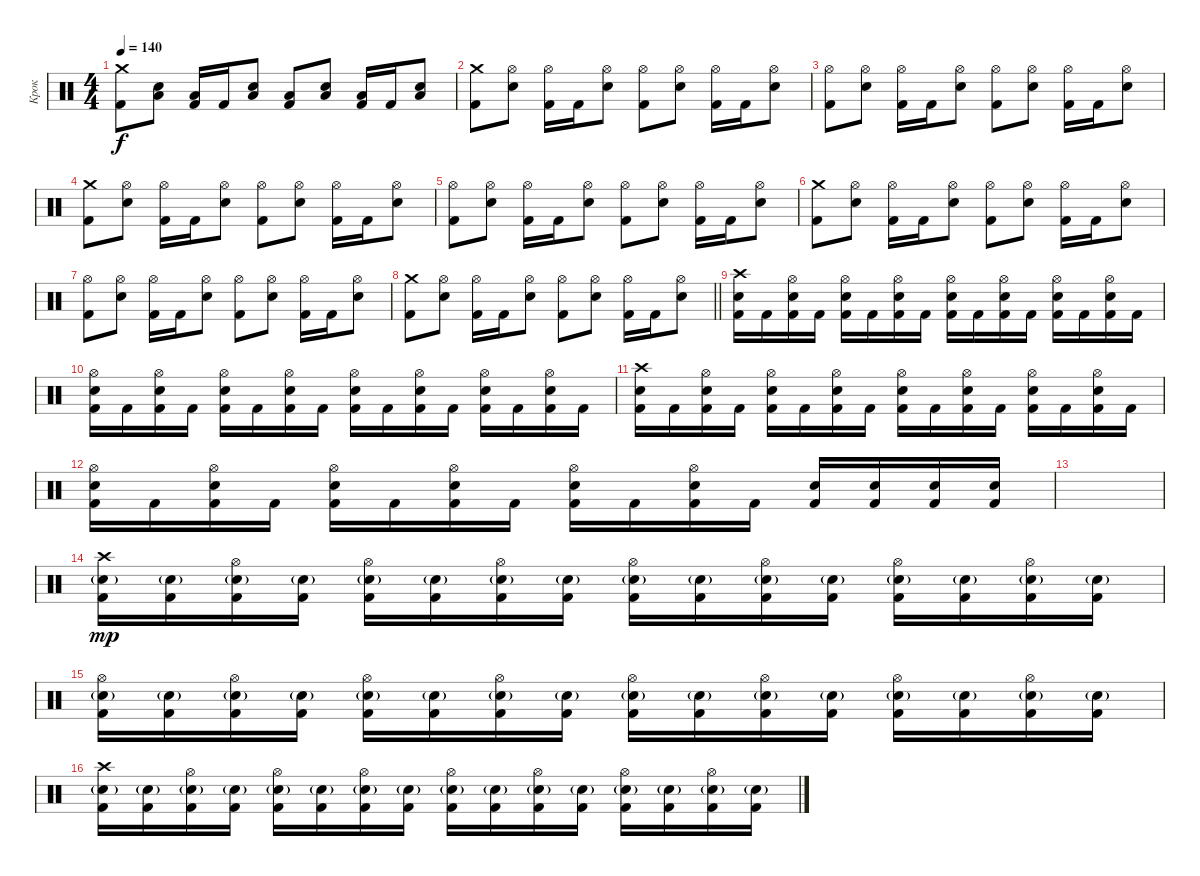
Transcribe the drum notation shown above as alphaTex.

\track ("Крок" "Крок") {instrument percussion}
\staff {score}
\articulation defaults
\ts (4 4)
\tempo 140
\clef neutral
\ks c
("Crash medium (hit)" "Kick (hit) 2").8{dy f} ("Low Floor Tom (hit)" "Electric Snare (hit)").8 ("Low Floor Tom (hit)" "Kick (hit) 2").16 "Kick (hit) 2".16 ("Low Floor Tom (hit)" "Electric Snare (hit)").8 ("Low Floor Tom (hit)" "Kick (hit) 2").8 ("Low Floor Tom (hit)" "Electric Snare (hit)").8 ("Low Floor Tom (hit)" "Kick (hit) 2").16 "Kick (hit) 2".16 ("Low Floor Tom (hit)" "Electric Snare (hit)").8 |
("Crash medium (hit)" "Kick (hit) 2").8 ("Hi-Hat (open)" "Electric Snare (hit)").8 ("Hi-Hat (open)" "Kick (hit) 2").16 "Kick (hit) 2".16 ("Hi-Hat (open)" "Electric Snare (hit)").8 ("Hi-Hat (open)" "Kick (hit) 2").8 ("Hi-Hat (open)" "Electric Snare (hit)").8 ("Hi-Hat (open)" "Kick (hit) 2").16 "Kick (hit) 2".16 ("Hi-Hat (open)" "Electric Snare (hit)").8 |
("Hi-Hat (open)" "Kick (hit) 2").8 ("Hi-Hat (open)" "Electric Snare (hit)").8 ("Hi-Hat (open)" "Kick (hit) 2").16 "Kick (hit) 2".16 ("Hi-Hat (open)" "Electric Snare (hit)").8 ("Hi-Hat (open)" "Kick (hit) 2").8 ("Hi-Hat (open)" "Electric Snare (hit)").8 ("Hi-Hat (open)" "Kick (hit) 2").16 "Kick (hit) 2".16 ("Hi-Hat (open)" "Electric Snare (hit)").8 |
("Crash medium (hit)" "Kick (hit) 2").8 ("Hi-Hat (open)" "Electric Snare (hit)").8 ("Hi-Hat (open)" "Kick (hit) 2").16 "Kick (hit) 2".16 ("Hi-Hat (open)" "Electric Snare (hit)").8 ("Hi-Hat (open)" "Kick (hit) 2").8 ("Hi-Hat (open)" "Electric Snare (hit)").8 ("Hi-Hat (open)" "Kick (hit) 2").16 "Kick (hit) 2".16 ("Hi-Hat (open)" "Electric Snare (hit)").8 |
("Hi-Hat (open)" "Kick (hit) 2").8 ("Hi-Hat (open)" "Electric Snare (hit)").8 ("Hi-Hat (open)" "Kick (hit) 2").16 "Kick (hit) 2".16 ("Hi-Hat (open)" "Electric Snare (hit)").8 ("Hi-Hat (open)" "Kick (hit) 2").8 ("Hi-Hat (open)" "Electric Snare (hit)").8 ("Hi-Hat (open)" "Kick (hit) 2").16 "Kick (hit) 2".16 ("Hi-Hat (open)" "Electric Snare (hit)").8 |
("Crash medium (hit)" "Kick (hit) 2").8 ("Hi-Hat (open)" "Electric Snare (hit)").8 ("Hi-Hat (open)" "Kick (hit) 2").16 "Kick (hit) 2".16 ("Hi-Hat (open)" "Electric Snare (hit)").8 ("Hi-Hat (open)" "Kick (hit) 2").8 ("Hi-Hat (open)" "Electric Snare (hit)").8 ("Hi-Hat (open)" "Kick (hit) 2").16 "Kick (hit) 2".16 ("Hi-Hat (open)" "Electric Snare (hit)").8 |
("Hi-Hat (open)" "Kick (hit) 2").8 ("Hi-Hat (open)" "Electric Snare (hit)").8 ("Hi-Hat (open)" "Kick (hit) 2").16 "Kick (hit) 2".16 ("Hi-Hat (open)" "Electric Snare (hit)").8 ("Hi-Hat (open)" "Kick (hit) 2").8 ("Hi-Hat (open)" "Electric Snare (hit)").8 ("Hi-Hat (open)" "Kick (hit) 2").16 "Kick (hit) 2".16 ("Hi-Hat (open)" "Electric Snare (hit)").8 |
\barLineRight lightlight
("Crash medium (hit)" "Kick (hit) 2").8 ("Hi-Hat (open)" "Electric Snare (hit)").8 ("Hi-Hat (open)" "Kick (hit) 2").16 "Kick (hit) 2".16 ("Hi-Hat (open)" "Electric Snare (hit)").8 ("Hi-Hat (open)" "Kick (hit) 2").8 ("Hi-Hat (open)" "Electric Snare (hit)").8 ("Hi-Hat (open)" "Kick (hit) 2").16 "Kick (hit) 2".16 ("Hi-Hat (open)" "Electric Snare (hit)").8 |
("Crash high (hit)" "Electric Snare (hit)" "Kick (hit) 2").16 "Kick (hit) 2".16 ("Hi-Hat (open)" "Electric Snare (hit)" "Kick (hit) 2").16 "Kick (hit) 2".16 ("Hi-Hat (open)" "Electric Snare (hit)" "Kick (hit) 2").16 "Kick (hit) 2".16 ("Hi-Hat (open)" "Electric Snare (hit)" "Kick (hit) 2").16 "Kick (hit) 2".16 ("Hi-Hat (open)" "Electric Snare (hit)" "Kick (hit) 2").16 "Kick (hit) 2".16 ("Hi-Hat (open)" "Electric Snare (hit)" "Kick (hit) 2").16 "Kick (hit) 2".16 ("Hi-Hat (open)" "Electric Snare (hit)" "Kick (hit) 2").16 "Kick (hit) 2".16 ("Hi-Hat (open)" "Electric Snare (hit)" "Kick (hit) 2").16 "Kick (hit) 2".16 |
("Hi-Hat (open)" "Electric Snare (hit)" "Kick (hit) 2").16 "Kick (hit) 2".16 ("Hi-Hat (open)" "Electric Snare (hit)" "Kick (hit) 2").16 "Kick (hit) 2".16 ("Hi-Hat (open)" "Electric Snare (hit)" "Kick (hit) 2").16 "Kick (hit) 2".16 ("Hi-Hat (open)" "Electric Snare (hit)" "Kick (hit) 2").16 "Kick (hit) 2".16 ("Hi-Hat (open)" "Electric Snare (hit)" "Kick (hit) 2").16 "Kick (hit) 2".16 ("Hi-Hat (open)" "Electric Snare (hit)" "Kick (hit) 2").16 "Kick (hit) 2".16 ("Hi-Hat (open)" "Electric Snare (hit)" "Kick (hit) 2").16 "Kick (hit) 2".16 ("Hi-Hat (open)" "Electric Snare (hit)" "Kick (hit) 2").16 "Kick (hit) 2".16 |
("Crash high (hit)" "Electric Snare (hit)" "Kick (hit) 2").16 "Kick (hit) 2".16 ("Hi-Hat (open)" "Electric Snare (hit)" "Kick (hit) 2").16 "Kick (hit) 2".16 ("Hi-Hat (open)" "Electric Snare (hit)" "Kick (hit) 2").16 "Kick (hit) 2".16 ("Hi-Hat (open)" "Electric Snare (hit)" "Kick (hit) 2").16 "Kick (hit) 2".16 ("Hi-Hat (open)" "Electric Snare (hit)" "Kick (hit) 2").16 "Kick (hit) 2".16 ("Hi-Hat (open)" "Electric Snare (hit)" "Kick (hit) 2").16 "Kick (hit) 2".16 ("Hi-Hat (open)" "Electric Snare (hit)" "Kick (hit) 2").16 "Kick (hit) 2".16 ("Hi-Hat (open)" "Electric Snare (hit)" "Kick (hit) 2").16 "Kick (hit) 2".16 |
("Hi-Hat (open)" "Electric Snare (hit)" "Kick (hit) 2").16 "Kick (hit) 2".16 ("Hi-Hat (open)" "Electric Snare (hit)" "Kick (hit) 2").16 "Kick (hit) 2".16 ("Hi-Hat (open)" "Electric Snare (hit)" "Kick (hit) 2").16 "Kick (hit) 2".16 ("Hi-Hat (open)" "Electric Snare (hit)" "Kick (hit) 2").16 "Kick (hit) 2".16 ("Hi-Hat (open)" "Electric Snare (hit)" "Kick (hit) 2").16 "Kick (hit) 2".16 ("Hi-Hat (open)" "Electric Snare (hit)" "Kick (hit) 2").16 "Kick (hit) 2".16 ("Electric Snare (hit)" "Kick (hit) 2").16 ("Electric Snare (hit)" "Kick (hit) 2").16 ("Electric Snare (hit)" "Kick (hit) 2").16 ("Electric Snare (hit)" "Kick (hit) 2").16 |
|
("Crash high (hit)" "Electric Snare (hit)"{g} "Kick (hit) 2").16{dy mp} ("Electric Snare (hit)"{g} "Kick (hit) 2").16 ("Hi-Hat (open)" "Electric Snare (hit)"{g} "Kick (hit) 2").16 ("Electric Snare (hit)"{g} "Kick (hit) 2").16 ("Hi-Hat (open)" "Electric Snare (hit)"{g} "Kick (hit) 2").16 ("Electric Snare (hit)"{g} "Kick (hit) 2").16 ("Hi-Hat (open)" "Electric Snare (hit)"{g} "Kick (hit) 2").16 ("Electric Snare (hit)"{g} "Kick (hit) 2").16 ("Hi-Hat (open)" "Electric Snare (hit)"{g} "Kick (hit) 2").16 ("Electric Snare (hit)"{g} "Kick (hit) 2").16 ("Hi-Hat (open)" "Electric Snare (hit)"{g} "Kick (hit) 2").16 ("Electric Snare (hit)"{g} "Kick (hit) 2").16 ("Hi-Hat (open)" "Electric Snare (hit)"{g} "Kick (hit) 2").16 ("Electric Snare (hit)"{g} "Kick (hit) 2").16 ("Hi-Hat (open)" "Electric Snare (hit)"{g} "Kick (hit) 2").16 ("Electric Snare (hit)"{g} "Kick (hit) 2").16 |
("Hi-Hat (open)" "Electric Snare (hit)"{g} "Kick (hit) 2").16 ("Electric Snare (hit)"{g} "Kick (hit) 2").16 ("Hi-Hat (open)" "Electric Snare (hit)"{g} "Kick (hit) 2").16 ("Electric Snare (hit)"{g} "Kick (hit) 2").16 ("Hi-Hat (open)" "Electric Snare (hit)"{g} "Kick (hit) 2").16 ("Electric Snare (hit)"{g} "Kick (hit) 2").16 ("Hi-Hat (open)" "Electric Snare (hit)"{g} "Kick (hit) 2").16 ("Electric Snare (hit)"{g} "Kick (hit) 2").16 ("Hi-Hat (open)" "Electric Snare (hit)"{g} "Kick (hit) 2").16 ("Electric Snare (hit)"{g} "Kick (hit) 2").16 ("Hi-Hat (open)" "Electric Snare (hit)"{g} "Kick (hit) 2").16 ("Electric Snare (hit)"{g} "Kick (hit) 2").16 ("Hi-Hat (open)" "Electric Snare (hit)"{g} "Kick (hit) 2").16 ("Electric Snare (hit)"{g} "Kick (hit) 2").16 ("Hi-Hat (open)" "Electric Snare (hit)"{g} "Kick (hit) 2").16 ("Electric Snare (hit)"{g} "Kick (hit) 2").16 |
("Crash high (hit)" "Electric Snare (hit)"{g} "Kick (hit) 2").16 ("Electric Snare (hit)"{g} "Kick (hit) 2").16 ("Hi-Hat (open)" "Electric Snare (hit)"{g} "Kick (hit) 2").16 ("Electric Snare (hit)"{g} "Kick (hit) 2").16 ("Hi-Hat (open)" "Electric Snare (hit)"{g} "Kick (hit) 2").16 ("Electric Snare (hit)"{g} "Kick (hit) 2").16 ("Hi-Hat (open)" "Electric Snare (hit)"{g} "Kick (hit) 2").16 ("Electric Snare (hit)"{g} "Kick (hit) 2").16 ("Hi-Hat (open)" "Electric Snare (hit)"{g} "Kick (hit) 2").16 ("Electric Snare (hit)"{g} "Kick (hit) 2").16 ("Hi-Hat (open)" "Electric Snare (hit)"{g} "Kick (hit) 2").16 ("Electric Snare (hit)"{g} "Kick (hit) 2").16 ("Hi-Hat (open)" "Electric Snare (hit)"{g} "Kick (hit) 2").16 ("Electric Snare (hit)"{g} "Kick (hit) 2").16 ("Hi-Hat (open)" "Electric Snare (hit)"{g} "Kick (hit) 2").16 ("Electric Snare (hit)"{g} "Kick (hit) 2").16
